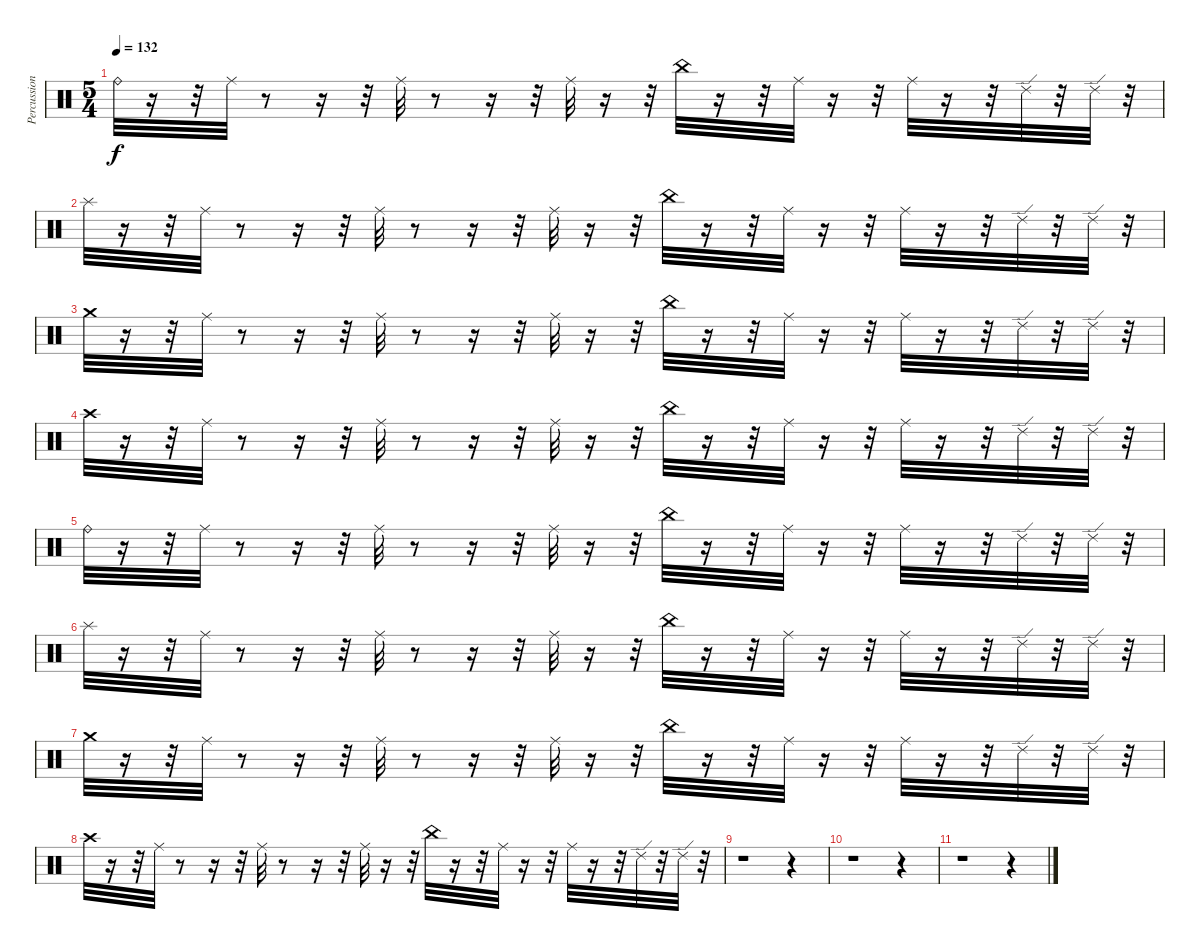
\track ("Percussions" "Percussion") {instrument percussion}
\staff {score}
\articulation defaults
\ts (5 4)
\tempo 132
\clef neutral
\ks c "Ride (bell)".32{dy f}
r.16 r.32 "Ride (middle)".32 r.8 r.16 r.32 "Ride (middle)".32 r.8 r.16 r.32 "Ride (middle)".32 r.16 r.32 "China (hit)".32 r.16 r.32 "Ride (middle)".32 r.16 r.32 "Ride (middle)".32 r.16 r.32 "Ride (edge) 2".32 r.32 "Ride (edge) 2".32 r.32 |
"Splash (hit)".32 r.16 r.32 "Ride (middle)".32 r.8 r.16 r.32 "Ride (middle)".32 r.8 r.16 r.32 "Ride (middle)".32 r.16 r.32 "China (hit)".32 r.16 r.32 "Ride (middle)".32 r.16 r.32 "Ride (middle)".32 r.16 r.32 "Ride (edge) 2".32 r.32 "Ride (edge) 2".32 r.32 |
"Crash medium (hit)".32 r.16 r.32 "Ride (middle)".32 r.8 r.16 r.32 "Ride (middle)".32 r.8 r.16 r.32 "Ride (middle)".32 r.16 r.32 "China (hit)".32 r.16 r.32 "Ride (middle)".32 r.16 r.32 "Ride (middle)".32 r.16 r.32 "Ride (edge) 2".32 r.32 "Ride (edge) 2".32 r.32 |
"Crash high (hit)".32 r.16 r.32 "Ride (middle)".32 r.8 r.16 r.32 "Ride (middle)".32 r.8 r.16 r.32 "Ride (middle)".32 r.16 r.32 "China (hit)".32 r.16 r.32 "Ride (middle)".32 r.16 r.32 "Ride (middle)".32 r.16 r.32 "Ride (edge) 2".32 r.32 "Ride (edge) 2".32 r.32 |
"Ride (bell)".32 r.16 r.32 "Ride (middle)".32 r.8 r.16 r.32 "Ride (middle)".32 r.8 r.16 r.32 "Ride (middle)".32 r.16 r.32 "China (hit)".32 r.16 r.32 "Ride (middle)".32 r.16 r.32 "Ride (middle)".32 r.16 r.32 "Ride (edge) 2".32 r.32 "Ride (edge) 2".32 r.32 |
"Splash (hit)".32 r.16 r.32 "Ride (middle)".32 r.8 r.16 r.32 "Ride (middle)".32 r.8 r.16 r.32 "Ride (middle)".32 r.16 r.32 "China (hit)".32 r.16 r.32 "Ride (middle)".32 r.16 r.32 "Ride (middle)".32 r.16 r.32 "Ride (edge) 2".32 r.32 "Ride (edge) 2".32 r.32 |
"Crash medium (hit)".32 r.16 r.32 "Ride (middle)".32 r.8 r.16 r.32 "Ride (middle)".32 r.8 r.16 r.32 "Ride (middle)".32 r.16 r.32 "China (hit)".32 r.16 r.32 "Ride (middle)".32 r.16 r.32 "Ride (middle)".32 r.16 r.32 "Ride (edge) 2".32 r.32 "Ride (edge) 2".32 r.32 |
"Crash high (hit)".32 r.16 r.32 "Ride (middle)".32 r.8 r.16 r.32 "Ride (middle)".32 r.8 r.16 r.32 "Ride (middle)".32 r.16 r.32 "China (hit)".32 r.16 r.32 "Ride (middle)".32 r.16 r.32 "Ride (middle)".32 r.16 r.32 "Ride (edge) 2".32 r.32 "Ride (edge) 2".32 r.32 |
r.1 r.4 |
r.1 r.4 |
r.1 r.4
